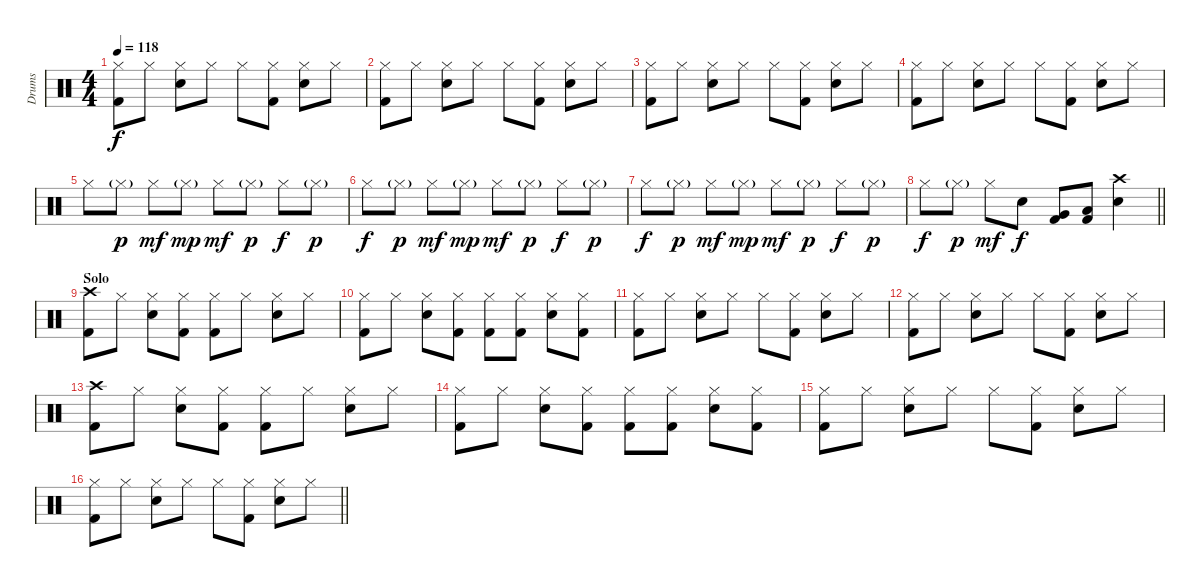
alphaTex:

\track ("Drums" "Drums") {instrument percussion}
\staff {score}
\articulation defaults
\ts (4 4)
\tempo 118
\clef neutral
\ks c
("Hi-Hat (closed)" "Kick (hit) 2").8{dy f} "Hi-Hat (closed)".8 ("Hi-Hat (closed)" "Electric Snare (hit)").8 "Hi-Hat (closed)".8 "Hi-Hat (closed)".8 ("Hi-Hat (closed)" "Kick (hit) 2").8 ("Hi-Hat (closed)" "Electric Snare (hit)").8 "Hi-Hat (closed)".8 |
("Hi-Hat (closed)" "Kick (hit) 2").8 "Hi-Hat (closed)".8 ("Hi-Hat (closed)" "Electric Snare (hit)").8 "Hi-Hat (closed)".8 "Hi-Hat (closed)".8 ("Hi-Hat (closed)" "Kick (hit) 2").8 ("Hi-Hat (closed)" "Electric Snare (hit)").8 "Hi-Hat (closed)".8 |
("Hi-Hat (closed)" "Kick (hit) 2").8 "Hi-Hat (closed)".8 ("Hi-Hat (closed)" "Electric Snare (hit)").8 "Hi-Hat (closed)".8 "Hi-Hat (closed)".8 ("Hi-Hat (closed)" "Kick (hit) 2").8 ("Hi-Hat (closed)" "Electric Snare (hit)").8 "Hi-Hat (closed)".8 |
("Hi-Hat (closed)" "Kick (hit) 2").8 "Hi-Hat (closed)".8 ("Hi-Hat (closed)" "Electric Snare (hit)").8 "Hi-Hat (closed)".8 "Hi-Hat (closed)".8 ("Hi-Hat (closed)" "Kick (hit) 2").8 ("Hi-Hat (closed)" "Electric Snare (hit)").8 "Hi-Hat (closed)".8 |
"Hi-Hat (closed)".8 "Hi-Hat (closed)"{g}.8{dy p} "Hi-Hat (closed)".8{dy mf} "Hi-Hat (closed)"{g}.8{dy mp} "Hi-Hat (closed)".8{dy mf} "Hi-Hat (closed)"{g}.8{dy p} "Hi-Hat (closed)".8{dy f} "Hi-Hat (closed)"{g}.8{dy p} |
"Hi-Hat (closed)".8{dy f} "Hi-Hat (closed)"{g}.8{dy p} "Hi-Hat (closed)".8{dy mf} "Hi-Hat (closed)"{g}.8{dy mp} "Hi-Hat (closed)".8{dy mf} "Hi-Hat (closed)"{g}.8{dy p} "Hi-Hat (closed)".8{dy f} "Hi-Hat (closed)"{g}.8{dy p} |
"Hi-Hat (closed)".8{dy f} "Hi-Hat (closed)"{g}.8{dy p} "Hi-Hat (closed)".8{dy mf} "Hi-Hat (closed)"{g}.8{dy mp} "Hi-Hat (closed)".8{dy mf} "Hi-Hat (closed)"{g}.8{dy p} "Hi-Hat (closed)".8{dy f} "Hi-Hat (closed)"{g}.8{dy p} |
\barLineRight lightlight "Hi-Hat (closed)".8{dy f} "Hi-Hat (closed)"{g}.8{dy p} "Hi-Hat (closed)".8{dy mf} "Electric Snare (hit)".8{dy f}
("Very Low Tom (hit)" "Kick (hit) 2").8 ("Low Floor Tom (hit)" "Kick (hit) 2").8 ("Crash high (hit)" "Electric Snare (hit)").4 |
\section ("" "Solo")
("Crash high (hit)" "Kick (hit) 2").8 "Hi-Hat (closed)".8 ("Hi-Hat (closed)" "Electric Snare (hit)").8 ("Hi-Hat (closed)" "Kick (hit) 2").8 ("Hi-Hat (closed)" "Kick (hit) 2").8 "Hi-Hat (closed)".8 ("Hi-Hat (closed)" "Electric Snare (hit)").8 "Hi-Hat (closed)".8 |
("Hi-Hat (closed)" "Kick (hit) 2").8 "Hi-Hat (closed)".8 ("Hi-Hat (closed)" "Electric Snare (hit)").8 ("Hi-Hat (closed)" "Kick (hit) 2").8 ("Hi-Hat (closed)" "Kick (hit) 2").8 ("Hi-Hat (closed)" "Kick (hit) 2").8 ("Hi-Hat (closed)" "Electric Snare (hit)").8 ("Hi-Hat (closed)" "Kick (hit) 2").8 |
("Hi-Hat (closed)" "Kick (hit) 2").8 "Hi-Hat (closed)".8 ("Hi-Hat (closed)" "Electric Snare (hit)").8 "Hi-Hat (closed)".8 "Hi-Hat (closed)".8 ("Hi-Hat (closed)" "Kick (hit) 2").8 ("Hi-Hat (closed)" "Electric Snare (hit)").8 "Hi-Hat (closed)".8 |
("Hi-Hat (closed)" "Kick (hit) 2").8 "Hi-Hat (closed)".8 ("Hi-Hat (closed)" "Electric Snare (hit)").8 "Hi-Hat (closed)".8 "Hi-Hat (closed)".8 ("Hi-Hat (closed)" "Kick (hit) 2").8 ("Hi-Hat (closed)" "Electric Snare (hit)").8 "Hi-Hat (closed)".8 |
("Crash high (hit)" "Kick (hit) 2").8 "Hi-Hat (closed)".8 ("Hi-Hat (closed)" "Electric Snare (hit)").8 ("Hi-Hat (closed)" "Kick (hit) 2").8 ("Hi-Hat (closed)" "Kick (hit) 2").8 "Hi-Hat (closed)".8 ("Hi-Hat (closed)" "Electric Snare (hit)").8 "Hi-Hat (closed)".8 |
("Hi-Hat (closed)" "Kick (hit) 2").8 "Hi-Hat (closed)".8 ("Hi-Hat (closed)" "Electric Snare (hit)").8 ("Hi-Hat (closed)" "Kick (hit) 2").8 ("Hi-Hat (closed)" "Kick (hit) 2").8 ("Hi-Hat (closed)" "Kick (hit) 2").8 ("Hi-Hat (closed)" "Electric Snare (hit)").8 ("Hi-Hat (closed)" "Kick (hit) 2").8 |
("Hi-Hat (closed)" "Kick (hit) 2").8 "Hi-Hat (closed)".8 ("Hi-Hat (closed)" "Electric Snare (hit)").8 "Hi-Hat (closed)".8 "Hi-Hat (closed)".8 ("Hi-Hat (closed)" "Kick (hit) 2").8 ("Hi-Hat (closed)" "Electric Snare (hit)").8 "Hi-Hat (closed)".8 |
\barLineRight lightlight
("Hi-Hat (closed)" "Kick (hit) 2").8 "Hi-Hat (closed)".8 ("Hi-Hat (closed)" "Electric Snare (hit)").8 "Hi-Hat (closed)".8 "Hi-Hat (closed)".8 ("Hi-Hat (closed)" "Kick (hit) 2").8 ("Hi-Hat (closed)" "Electric Snare (hit)").8 "Hi-Hat (closed)".8
